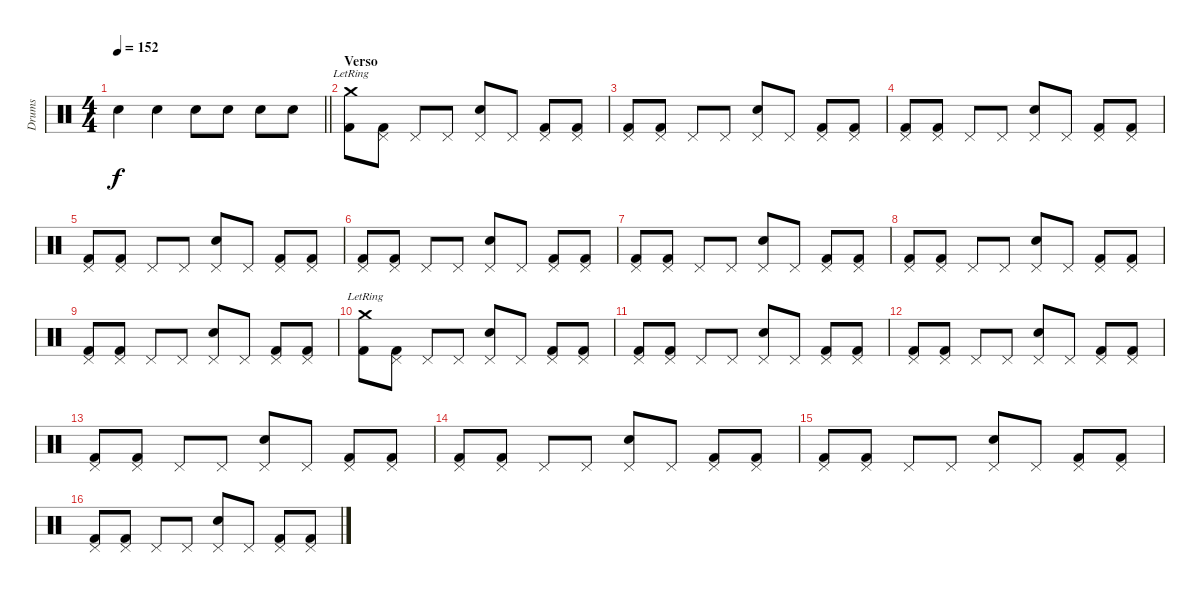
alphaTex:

\track ("Drums" "Drums") {instrument percussion}
\staff {score}
\articulation defaults
\ts (4 4)
\tempo 152
\clef neutral
\barLineRight lightlight
\ks c "Electric Snare (hit)".4{dy f} "Electric Snare (hit)".4 "Electric Snare (hit)".8 "Electric Snare (hit)".8 "Electric Snare (hit)".8 "Electric Snare (hit)".8
|
\section ("" "Verso")
("Crash medium (hit)"{lr} "Kick (hit) 2").8 ("Pedal Hi-Hat (hit)" "Kick (hit) 2").8 "Pedal Hi-Hat (hit)".8 "Pedal Hi-Hat (hit)".8 ("Pedal Hi-Hat (hit)" "Electric Snare (hit)").8 "Pedal Hi-Hat (hit)".8 ("Pedal Hi-Hat (hit)" "Kick (hit) 2").8 ("Pedal Hi-Hat (hit)" "Kick (hit) 2").8 |
("Pedal Hi-Hat (hit)" "Kick (hit) 2").8 ("Pedal Hi-Hat (hit)" "Kick (hit) 2").8 "Pedal Hi-Hat (hit)".8 "Pedal Hi-Hat (hit)".8 ("Pedal Hi-Hat (hit)" "Electric Snare (hit)").8 "Pedal Hi-Hat (hit)".8 ("Pedal Hi-Hat (hit)" "Kick (hit) 2").8 ("Pedal Hi-Hat (hit)" "Kick (hit) 2").8 |
("Pedal Hi-Hat (hit)" "Kick (hit) 2").8 ("Pedal Hi-Hat (hit)" "Kick (hit) 2").8 "Pedal Hi-Hat (hit)".8 "Pedal Hi-Hat (hit)".8 ("Pedal Hi-Hat (hit)" "Electric Snare (hit)").8 "Pedal Hi-Hat (hit)".8 ("Pedal Hi-Hat (hit)" "Kick (hit) 2").8 ("Pedal Hi-Hat (hit)" "Kick (hit) 2").8 |
("Pedal Hi-Hat (hit)" "Kick (hit) 2").8 ("Pedal Hi-Hat (hit)" "Kick (hit) 2").8 "Pedal Hi-Hat (hit)".8 "Pedal Hi-Hat (hit)".8 ("Pedal Hi-Hat (hit)" "Electric Snare (hit)").8 "Pedal Hi-Hat (hit)".8 ("Pedal Hi-Hat (hit)" "Kick (hit) 2").8 ("Pedal Hi-Hat (hit)" "Kick (hit) 2").8 |
("Pedal Hi-Hat (hit)" "Kick (hit) 2").8 ("Pedal Hi-Hat (hit)" "Kick (hit) 2").8 "Pedal Hi-Hat (hit)".8 "Pedal Hi-Hat (hit)".8 ("Pedal Hi-Hat (hit)" "Electric Snare (hit)").8 "Pedal Hi-Hat (hit)".8 ("Pedal Hi-Hat (hit)" "Kick (hit) 2").8 ("Pedal Hi-Hat (hit)" "Kick (hit) 2").8 |
("Pedal Hi-Hat (hit)" "Kick (hit) 2").8 ("Pedal Hi-Hat (hit)" "Kick (hit) 2").8 "Pedal Hi-Hat (hit)".8 "Pedal Hi-Hat (hit)".8 ("Pedal Hi-Hat (hit)" "Electric Snare (hit)").8 "Pedal Hi-Hat (hit)".8 ("Pedal Hi-Hat (hit)" "Kick (hit) 2").8 ("Pedal Hi-Hat (hit)" "Kick (hit) 2").8 |
("Pedal Hi-Hat (hit)" "Kick (hit) 2").8 ("Pedal Hi-Hat (hit)" "Kick (hit) 2").8 "Pedal Hi-Hat (hit)".8 "Pedal Hi-Hat (hit)".8 ("Pedal Hi-Hat (hit)" "Electric Snare (hit)").8 "Pedal Hi-Hat (hit)".8 ("Pedal Hi-Hat (hit)" "Kick (hit) 2").8 ("Pedal Hi-Hat (hit)" "Kick (hit) 2").8 |
("Pedal Hi-Hat (hit)" "Kick (hit) 2").8 ("Pedal Hi-Hat (hit)" "Kick (hit) 2").8 "Pedal Hi-Hat (hit)".8 "Pedal Hi-Hat (hit)".8 ("Pedal Hi-Hat (hit)" "Electric Snare (hit)").8 "Pedal Hi-Hat (hit)".8 ("Pedal Hi-Hat (hit)" "Kick (hit) 2").8 ("Pedal Hi-Hat (hit)" "Kick (hit) 2").8 |
("Crash medium (hit)"{lr} "Kick (hit) 2").8 ("Pedal Hi-Hat (hit)" "Kick (hit) 2").8 "Pedal Hi-Hat (hit)".8 "Pedal Hi-Hat (hit)".8 ("Pedal Hi-Hat (hit)" "Electric Snare (hit)").8 "Pedal Hi-Hat (hit)".8 ("Pedal Hi-Hat (hit)" "Kick (hit) 2").8 ("Pedal Hi-Hat (hit)" "Kick (hit) 2").8 |
("Pedal Hi-Hat (hit)" "Kick (hit) 2").8 ("Pedal Hi-Hat (hit)" "Kick (hit) 2").8 "Pedal Hi-Hat (hit)".8 "Pedal Hi-Hat (hit)".8 ("Pedal Hi-Hat (hit)" "Electric Snare (hit)").8 "Pedal Hi-Hat (hit)".8 ("Pedal Hi-Hat (hit)" "Kick (hit) 2").8 ("Pedal Hi-Hat (hit)" "Kick (hit) 2").8 |
("Pedal Hi-Hat (hit)" "Kick (hit) 2").8 ("Pedal Hi-Hat (hit)" "Kick (hit) 2").8 "Pedal Hi-Hat (hit)".8 "Pedal Hi-Hat (hit)".8 ("Pedal Hi-Hat (hit)" "Electric Snare (hit)").8 "Pedal Hi-Hat (hit)".8 ("Pedal Hi-Hat (hit)" "Kick (hit) 2").8 ("Pedal Hi-Hat (hit)" "Kick (hit) 2").8 |
("Pedal Hi-Hat (hit)" "Kick (hit) 2").8 ("Pedal Hi-Hat (hit)" "Kick (hit) 2").8 "Pedal Hi-Hat (hit)".8 "Pedal Hi-Hat (hit)".8 ("Pedal Hi-Hat (hit)" "Electric Snare (hit)").8 "Pedal Hi-Hat (hit)".8 ("Pedal Hi-Hat (hit)" "Kick (hit) 2").8 ("Pedal Hi-Hat (hit)" "Kick (hit) 2").8 |
("Pedal Hi-Hat (hit)" "Kick (hit) 2").8 ("Pedal Hi-Hat (hit)" "Kick (hit) 2").8 "Pedal Hi-Hat (hit)".8 "Pedal Hi-Hat (hit)".8 ("Pedal Hi-Hat (hit)" "Electric Snare (hit)").8 "Pedal Hi-Hat (hit)".8 ("Pedal Hi-Hat (hit)" "Kick (hit) 2").8 ("Pedal Hi-Hat (hit)" "Kick (hit) 2").8 |
("Pedal Hi-Hat (hit)" "Kick (hit) 2").8 ("Pedal Hi-Hat (hit)" "Kick (hit) 2").8 "Pedal Hi-Hat (hit)".8 "Pedal Hi-Hat (hit)".8 ("Pedal Hi-Hat (hit)" "Electric Snare (hit)").8 "Pedal Hi-Hat (hit)".8 ("Pedal Hi-Hat (hit)" "Kick (hit) 2").8 ("Pedal Hi-Hat (hit)" "Kick (hit) 2").8 |
("Pedal Hi-Hat (hit)" "Kick (hit) 2").8 ("Pedal Hi-Hat (hit)" "Kick (hit) 2").8 "Pedal Hi-Hat (hit)".8 "Pedal Hi-Hat (hit)".8 ("Pedal Hi-Hat (hit)" "Electric Snare (hit)").8 "Pedal Hi-Hat (hit)".8 ("Pedal Hi-Hat (hit)" "Kick (hit) 2").8 ("Pedal Hi-Hat (hit)" "Kick (hit) 2").8
